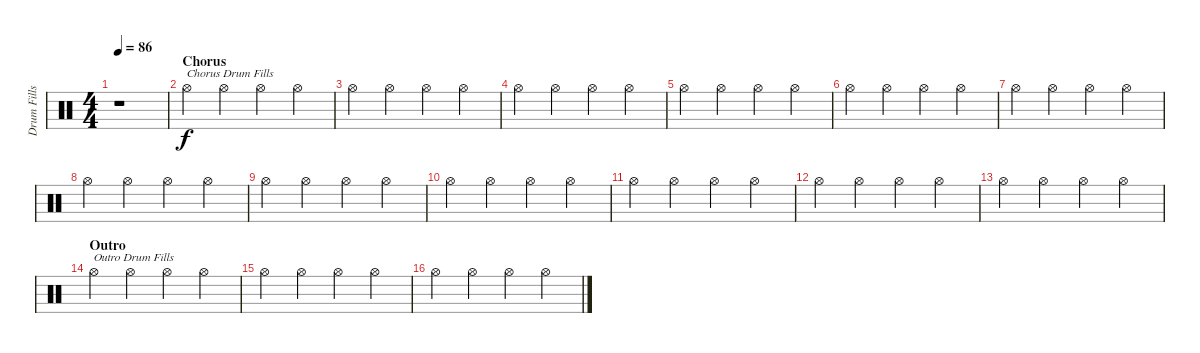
\track ("Drum Fills" "Drum Fills") {instrument percussion}
\staff {score}
\articulation defaults
\ts (4 4)
\tempo 86
\clef neutral
\ks c
r.1{dy f} |
\section ("" "Chorus")
"Hi-Hat (open)".4{txt "Chorus Drum Fills"} "Hi-Hat (open)".4 "Hi-Hat (open)".4 "Hi-Hat (open)".4 |
"Hi-Hat (open)".4 "Hi-Hat (open)".4 "Hi-Hat (open)".4 "Hi-Hat (open)".4 |
"Hi-Hat (open)".4 "Hi-Hat (open)".4 "Hi-Hat (open)".4 "Hi-Hat (open)".4 |
"Hi-Hat (open)".4 "Hi-Hat (open)".4 "Hi-Hat (open)".4 "Hi-Hat (open)".4 |
"Hi-Hat (open)".4 "Hi-Hat (open)".4 "Hi-Hat (open)".4 "Hi-Hat (open)".4 |
"Hi-Hat (open)".4 "Hi-Hat (open)".4 "Hi-Hat (open)".4 "Hi-Hat (open)".4 |
"Hi-Hat (open)".4 "Hi-Hat (open)".4 "Hi-Hat (open)".4 "Hi-Hat (open)".4 |
"Hi-Hat (open)".4 "Hi-Hat (open)".4 "Hi-Hat (open)".4 "Hi-Hat (open)".4 |
"Hi-Hat (open)".4 "Hi-Hat (open)".4 "Hi-Hat (open)".4 "Hi-Hat (open)".4 |
"Hi-Hat (open)".4 "Hi-Hat (open)".4 "Hi-Hat (open)".4 "Hi-Hat (open)".4 |
"Hi-Hat (open)".4 "Hi-Hat (open)".4 "Hi-Hat (open)".4 "Hi-Hat (open)".4 |
"Hi-Hat (open)".4 "Hi-Hat (open)".4 "Hi-Hat (open)".4 "Hi-Hat (open)".4 |
\section ("" "Outro")
"Hi-Hat (open)".4{txt "Outro Drum Fills"} "Hi-Hat (open)".4 "Hi-Hat (open)".4 "Hi-Hat (open)".4 |
"Hi-Hat (open)".4 "Hi-Hat (open)".4 "Hi-Hat (open)".4 "Hi-Hat (open)".4 |
"Hi-Hat (open)".4 "Hi-Hat (open)".4 "Hi-Hat (open)".4 "Hi-Hat (open)".4
